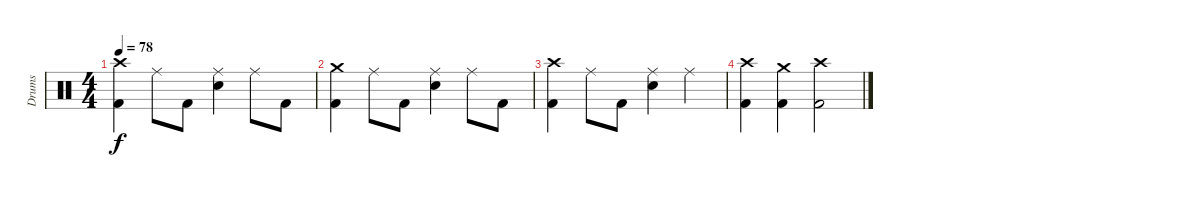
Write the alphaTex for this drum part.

\track ("Drums" "Drums") {instrument percussion}
\staff {score}
\articulation defaults
\ts (4 4)
\tempo 78
\clef neutral
\ks c
("Crash high (hit)" "Kick (hit) 2").4{dy f} "Ride (middle)".8 "Kick (hit) 2".8 ("Ride (middle)" "Electric Snare (hit)").4 "Ride (middle)".8 "Kick (hit) 2".8 |
("Crash medium (hit)" "Kick (hit) 2").4 "Ride (middle)".8 "Kick (hit) 2".8 ("Ride (middle)" "Electric Snare (hit)").4 "Ride (middle)".8 "Kick (hit) 2".8 |
("Crash high (hit)" "Kick (hit) 2").4 "Ride (middle)".8 "Kick (hit) 2".8 ("Ride (middle)" "Electric Snare (hit)").4 "Ride (middle)".4 |
("Crash high (hit)" "Kick (hit) 2").4 ("Crash medium (hit)" "Kick (hit) 2").4 ("Crash high (hit)" "Kick (hit) 2").2
